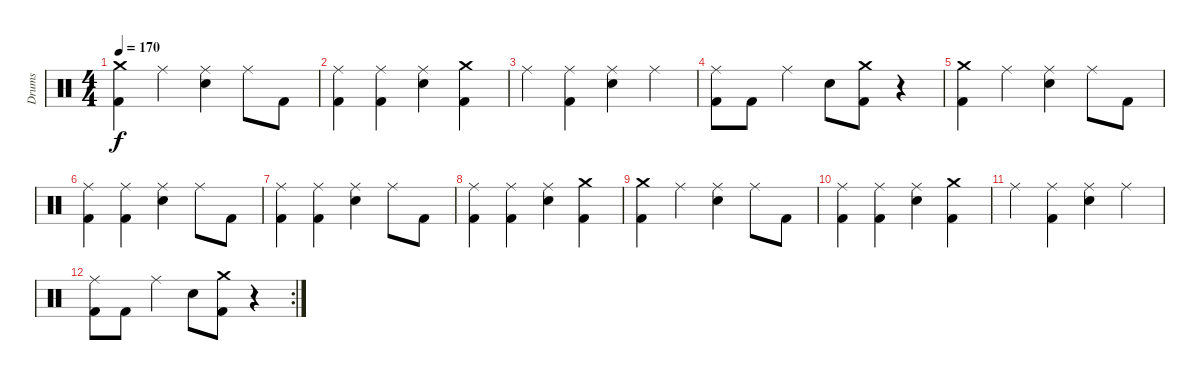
\track ("Drums" "Drums") {instrument percussion}
\staff {score}
\articulation defaults
\ts (4 4)
\tempo 170
\clef neutral
\ks c
("Crash medium (hit)" "Kick (hit) 2").4{dy f} "Ride (middle)".4 ("Ride (middle)" "Electric Snare (hit)").4 "Ride (middle)".8 "Kick (hit) 2".8 |
("Ride (middle)" "Kick (hit) 2").4 ("Ride (middle)" "Kick (hit) 2").4 ("Ride (middle)" "Electric Snare (hit)").4 ("Crash medium (hit)" "Kick (hit) 2").4 |
"Ride (middle)".4 ("Ride (middle)" "Kick (hit) 2").4 ("Ride (middle)" "Electric Snare (hit)").4 "Ride (middle)".4 |
("Ride (middle)" "Kick (hit) 2").8 "Kick (hit) 2".8 "Ride (middle)".4 "Electric Snare (hit)".8 ("Crash medium (hit)" "Kick (hit) 2").8 r.4 |
("Crash medium (hit)" "Kick (hit) 2").4 "Ride (middle)".4 ("Ride (middle)" "Electric Snare (hit)").4 "Ride (middle)".8 "Kick (hit) 2".8 |
("Ride (middle)" "Kick (hit) 2").4 ("Ride (middle)" "Kick (hit) 2").4 ("Ride (middle)" "Electric Snare (hit)").4 "Ride (middle)".8 "Kick (hit) 2".8 |
("Ride (middle)" "Kick (hit) 2").4 ("Ride (middle)" "Kick (hit) 2").4 ("Ride (middle)" "Electric Snare (hit)").4 "Ride (middle)".8 "Kick (hit) 2".8 |
("Ride (middle)" "Kick (hit) 2").4 ("Ride (middle)" "Kick (hit) 2").4 ("Ride (middle)" "Electric Snare (hit)").4 ("Crash medium (hit)" "Kick (hit) 2").4 |
("Crash medium (hit)" "Kick (hit) 2").4 "Ride (middle)".4 ("Ride (middle)" "Electric Snare (hit)").4 "Ride (middle)".8 "Kick (hit) 2".8 |
("Ride (middle)" "Kick (hit) 2").4 ("Ride (middle)" "Kick (hit) 2").4 ("Ride (middle)" "Electric Snare (hit)").4 ("Crash medium (hit)" "Kick (hit) 2").4 |
"Ride (middle)".4 ("Ride (middle)" "Kick (hit) 2").4 ("Ride (middle)" "Electric Snare (hit)").4 "Ride (middle)".4 |
\rc 2
("Ride (middle)" "Kick (hit) 2").8 "Kick (hit) 2".8 "Ride (middle)".4 "Electric Snare (hit)".8 ("Crash medium (hit)" "Kick (hit) 2").8 r.4
